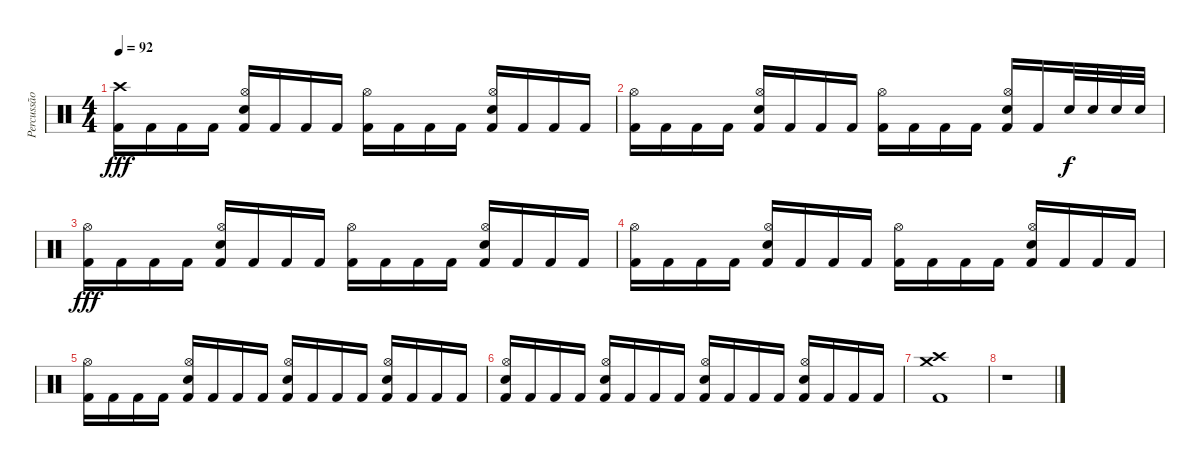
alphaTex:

\track ("Percussão" "Percussão") {instrument percussion}
\staff {score}
\articulation defaults
\ts (4 4)
\tempo 92
\clef neutral
\ks c
("Crash high (hit)" "Kick (hit) 2").16{dy fff volume 11} "Kick (hit) 2".16 "Kick (hit) 2".16 "Kick (hit) 2".16 ("Hi-Hat (open)" "Electric Snare (hit)" "Kick (hit) 2").16 "Kick (hit) 2".16 "Kick (hit) 2".16 "Kick (hit) 2".16 ("Hi-Hat (open)" "Kick (hit) 2").16 "Kick (hit) 2".16 "Kick (hit) 2".16 "Kick (hit) 2".16 ("Hi-Hat (open)" "Electric Snare (hit)" "Kick (hit) 2").16 "Kick (hit) 2".16 "Kick (hit) 2".16 "Kick (hit) 2".16 |
("Hi-Hat (open)" "Kick (hit) 2").16 "Kick (hit) 2".16 "Kick (hit) 2".16 "Kick (hit) 2".16 ("Hi-Hat (open)" "Electric Snare (hit)" "Kick (hit) 2").16 "Kick (hit) 2".16 "Kick (hit) 2".16 "Kick (hit) 2".16 ("Hi-Hat (open)" "Kick (hit) 2").16 "Kick (hit) 2".16 "Kick (hit) 2".16 "Kick (hit) 2".16 ("Hi-Hat (open)" "Electric Snare (hit)" "Kick (hit) 2").16 "Kick (hit) 2".16 "Electric Snare (hit)".32{dy f} "Electric Snare (hit)".32 "Electric Snare (hit)".32 "Electric Snare (hit)".32 |
("Hi-Hat (open)" "Kick (hit) 2").16{dy fff} "Kick (hit) 2".16 "Kick (hit) 2".16 "Kick (hit) 2".16 ("Hi-Hat (open)" "Electric Snare (hit)" "Kick (hit) 2").16 "Kick (hit) 2".16 "Kick (hit) 2".16 "Kick (hit) 2".16 ("Hi-Hat (open)" "Kick (hit) 2").16 "Kick (hit) 2".16 "Kick (hit) 2".16 "Kick (hit) 2".16 ("Hi-Hat (open)" "Electric Snare (hit)" "Kick (hit) 2").16 "Kick (hit) 2".16 "Kick (hit) 2".16 "Kick (hit) 2".16 |
("Hi-Hat (open)" "Kick (hit) 2").16 "Kick (hit) 2".16 "Kick (hit) 2".16 "Kick (hit) 2".16 ("Hi-Hat (open)" "Electric Snare (hit)" "Kick (hit) 2").16 "Kick (hit) 2".16 "Kick (hit) 2".16 "Kick (hit) 2".16 ("Hi-Hat (open)" "Kick (hit) 2").16 "Kick (hit) 2".16 "Kick (hit) 2".16 "Kick (hit) 2".16 ("Hi-Hat (open)" "Electric Snare (hit)" "Kick (hit) 2").16 "Kick (hit) 2".16 "Kick (hit) 2".16 "Kick (hit) 2".16 |
("Hi-Hat (open)" "Kick (hit) 2").16 "Kick (hit) 2".16 "Kick (hit) 2".16 "Kick (hit) 2".16 ("Hi-Hat (open)" "Electric Snare (hit)" "Kick (hit) 2").16 "Kick (hit) 2".16 "Kick (hit) 2".16 "Kick (hit) 2".16 ("Hi-Hat (open)" "Electric Snare (hit)" "Kick (hit) 2").16 "Kick (hit) 2".16 "Kick (hit) 2".16 "Kick (hit) 2".16 ("Hi-Hat (open)" "Electric Snare (hit)" "Kick (hit) 2").16 "Kick (hit) 2".16 "Kick (hit) 2".16 "Kick (hit) 2".16 |
("Hi-Hat (open)" "Electric Snare (hit)" "Kick (hit) 2").16 "Kick (hit) 2".16 "Kick (hit) 2".16 "Kick (hit) 2".16 ("Hi-Hat (open)" "Electric Snare (hit)" "Kick (hit) 2").16 "Kick (hit) 2".16 "Kick (hit) 2".16 "Kick (hit) 2".16 ("Hi-Hat (open)" "Electric Snare (hit)" "Kick (hit) 2").16 "Kick (hit) 2".16 "Kick (hit) 2".16 "Kick (hit) 2".16 ("Hi-Hat (open)" "Electric Snare (hit)" "Kick (hit) 2").16 "Kick (hit) 2".16 "Kick (hit) 2".16 "Kick (hit) 2".16 |
("Crash high (hit)" "Crash medium (hit)" "Kick (hit) 2").1 |
r.1
